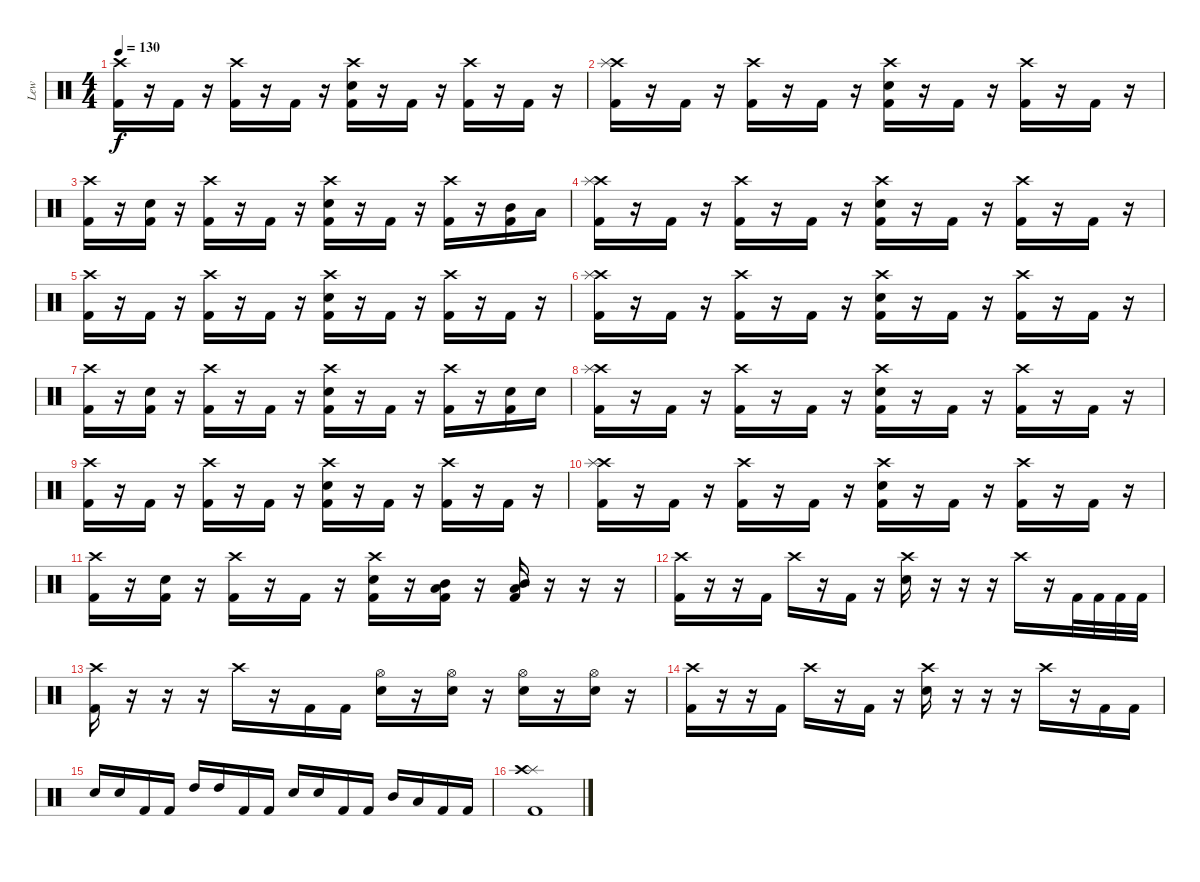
\track ("Lew" "Lew") {instrument percussion}
\staff {score}
\articulation defaults
\ts (4 4)
\tempo 130
\clef neutral
\ks c
("Crash high (hit)" "Kick (hit) 2").16{dy f} r.16 "Kick (hit) 2".16 r.16 ("Crash high (hit)" "Kick (hit) 2").16 r.16 "Kick (hit) 2".16 r.16 ("Crash high (hit)" "Electric Snare (hit)" "Kick (hit) 2").16 r.16 "Kick (hit) 2".16 r.16 ("Crash high (hit)" "Kick (hit) 2").16 r.16 "Kick (hit) 2".16 r.16 |
("Crash high (hit)" "Splash (hit)" "Kick (hit) 2").16 r.16 "Kick (hit) 2".16 r.16 ("Crash high (hit)" "Kick (hit) 2").16 r.16 "Kick (hit) 2".16 r.16 ("Crash high (hit)" "Electric Snare (hit)" "Kick (hit) 2").16 r.16 "Kick (hit) 2".16 r.16 ("Crash high (hit)" "Kick (hit) 2").16 r.16 "Kick (hit) 2".16 r.16 |
("Crash high (hit)" "Kick (hit) 2").16 r.16 ("Electric Snare (hit)" "Kick (hit) 2").16 r.16 ("Crash high (hit)" "Kick (hit) 2").16 r.16 "Kick (hit) 2".16 r.16 ("Crash high (hit)" "Electric Snare (hit)" "Kick (hit) 2").16 r.16 "Kick (hit) 2".16 r.16 ("Crash high (hit)" "Kick (hit) 2").16 r.16 ("Mid Tom (hit)" "Kick (hit) 2").16 "Low Tom (hit)".16 |
("Crash high (hit)" "Splash (hit)" "Kick (hit) 2").16 r.16 "Kick (hit) 2".16 r.16 ("Crash high (hit)" "Kick (hit) 2").16 r.16 "Kick (hit) 2".16 r.16 ("Crash high (hit)" "Electric Snare (hit)" "Kick (hit) 2").16 r.16 "Kick (hit) 2".16 r.16 ("Crash high (hit)" "Kick (hit) 2").16 r.16 "Kick (hit) 2".16 r.16 |
("Crash high (hit)" "Kick (hit) 2").16 r.16 "Kick (hit) 2".16 r.16 ("Crash high (hit)" "Kick (hit) 2").16 r.16 "Kick (hit) 2".16 r.16 ("Crash high (hit)" "Electric Snare (hit)" "Kick (hit) 2").16 r.16 "Kick (hit) 2".16 r.16 ("Crash high (hit)" "Kick (hit) 2").16 r.16 "Kick (hit) 2".16 r.16 |
("Crash high (hit)" "Splash (hit)" "Kick (hit) 2").16 r.16 "Kick (hit) 2".16 r.16 ("Crash high (hit)" "Kick (hit) 2").16 r.16 "Kick (hit) 2".16 r.16 ("Crash high (hit)" "Electric Snare (hit)" "Kick (hit) 2").16 r.16 "Kick (hit) 2".16 r.16 ("Crash high (hit)" "Kick (hit) 2").16 r.16 "Kick (hit) 2".16 r.16 |
("Crash high (hit)" "Kick (hit) 2").16 r.16 ("Electric Snare (hit)" "Kick (hit) 2").16 r.16 ("Crash high (hit)" "Kick (hit) 2").16 r.16 "Kick (hit) 2".16 r.16 ("Crash high (hit)" "Electric Snare (hit)" "Kick (hit) 2").16 r.16 "Kick (hit) 2".16 r.16 ("Crash high (hit)" "Kick (hit) 2").16 r.16 ("Electric Snare (hit)" "Kick (hit) 2").16 "Electric Snare (hit)".16 |
("Crash high (hit)" "Splash (hit)" "Kick (hit) 2").16 r.16 "Kick (hit) 2".16 r.16 ("Crash high (hit)" "Kick (hit) 2").16 r.16 "Kick (hit) 2".16 r.16 ("Crash high (hit)" "Electric Snare (hit)" "Kick (hit) 2").16 r.16 "Kick (hit) 2".16 r.16 ("Crash high (hit)" "Kick (hit) 2").16 r.16 "Kick (hit) 2".16 r.16 |
("Crash high (hit)" "Kick (hit) 2").16 r.16 "Kick (hit) 2".16 r.16 ("Crash high (hit)" "Kick (hit) 2").16 r.16 "Kick (hit) 2".16 r.16 ("Crash high (hit)" "Electric Snare (hit)" "Kick (hit) 2").16 r.16 "Kick (hit) 2".16 r.16 ("Crash high (hit)" "Kick (hit) 2").16 r.16 "Kick (hit) 2".16 r.16 |
("Crash high (hit)" "Splash (hit)" "Kick (hit) 2").16 r.16 "Kick (hit) 2".16 r.16 ("Crash high (hit)" "Kick (hit) 2").16 r.16 "Kick (hit) 2".16 r.16 ("Crash high (hit)" "Electric Snare (hit)" "Kick (hit) 2").16 r.16 "Kick (hit) 2".16 r.16 ("Crash high (hit)" "Kick (hit) 2").16 r.16 "Kick (hit) 2".16 r.16 |
("Crash high (hit)" "Kick (hit) 2").16 r.16 ("Electric Snare (hit)" "Kick (hit) 2").16 r.16 ("Crash high (hit)" "Kick (hit) 2").16 r.16 "Kick (hit) 2".16 r.16 ("Crash high (hit)" "Electric Snare (hit)" "Kick (hit) 2").16 r.16 ("Low Tom (hit)" "Mid Tom (hit)" "Kick (hit) 2").16 r.16 ("Low Tom (hit)" "Mid Tom (hit)" "Kick (hit) 2").16 r.16 r.16 r.16 |
("Crash high (hit)" "Kick (hit) 2").16 r.16 r.16 "Kick (hit) 2".16 "Crash high (hit)".16 r.16 "Kick (hit) 2".16 r.16 ("Crash high (hit)" "Electric Snare (hit)").16 r.16 r.16 r.16 "Crash high (hit)".16 r.16 "Kick (hit) 2".32 "Kick (hit) 2".32 "Kick (hit) 2".32 "Kick (hit) 2".32 |
("Crash high (hit)" "Kick (hit) 2").16 r.16 r.16 r.16 "Crash high (hit)".16 r.16 "Kick (hit) 2".16 "Kick (hit) 2".16 ("Hi-Hat (open)" "Electric Snare (hit)").16 r.16 ("Hi-Hat (open)" "Electric Snare (hit)").16 r.16 ("Hi-Hat (open)" "Electric Snare (hit)").16 r.16 ("Hi-Hat (open)" "Electric Snare (hit)").16 r.16 |
("Crash high (hit)" "Kick (hit) 2").16 r.16 r.16 "Kick (hit) 2".16 "Crash high (hit)".16 r.16 "Kick (hit) 2".16 r.16 ("Crash high (hit)" "Electric Snare (hit)").16 r.16 r.16 r.16 "Crash high (hit)".16 r.16 "Kick (hit) 2".16 "Kick (hit) 2".16 |
"Electric Snare (hit)".16 "Electric Snare (hit)".16 "Kick (hit) 2".16 "Kick (hit) 2".16 "High Tom (hit)".16 "High Tom (hit)".16 "Kick (hit) 2".16 "Kick (hit) 2".16 "Electric Snare (hit)".16 "Electric Snare (hit)".16 "Kick (hit) 2".16 "Kick (hit) 2".16 "Mid Tom (hit)".16 "Low Tom (hit)".16 "Kick (hit) 2".16 "Kick (hit) 2".16 |
("Splash (hit)" "Crash high (hit)" "Kick (hit) 2").1
